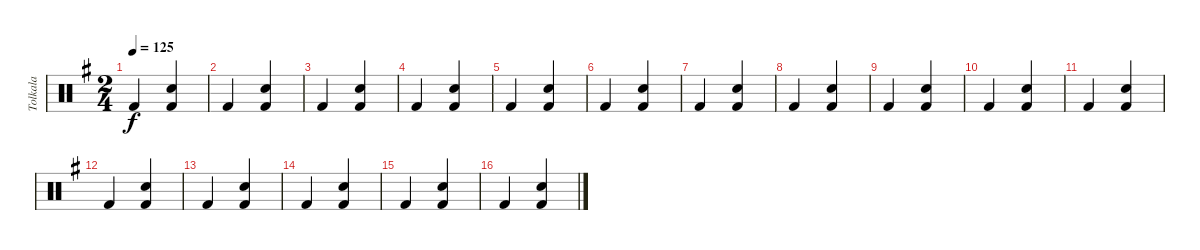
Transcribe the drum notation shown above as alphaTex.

\track ("Tolkala" "Tolkala") {instrument percussion}
\staff {score}
\articulation defaults
\ts (2 4)
\tempo 125
\clef neutral
\ks g "Kick (hit) 2".4{dy f}
("Kick (hit) 2" "Snare (hit) 2").4 |
"Kick (hit) 2".4 ("Kick (hit) 2" "Snare (hit) 2").4 |
"Kick (hit) 2".4 ("Kick (hit) 2" "Snare (hit) 2").4 |
"Kick (hit) 2".4 ("Kick (hit) 2" "Snare (hit) 2").4 |
"Kick (hit) 2".4 ("Kick (hit) 2" "Snare (hit) 2").4 |
"Kick (hit) 2".4 ("Kick (hit) 2" "Snare (hit) 2").4 |
"Kick (hit) 2".4 ("Kick (hit) 2" "Snare (hit) 2").4 |
"Kick (hit) 2".4 ("Kick (hit) 2" "Snare (hit) 2").4 |
"Kick (hit) 2".4 ("Kick (hit) 2" "Snare (hit) 2").4 |
"Kick (hit) 2".4 ("Kick (hit) 2" "Snare (hit) 2").4 |
"Kick (hit) 2".4 ("Kick (hit) 2" "Snare (hit) 2").4 |
"Kick (hit) 2".4 ("Kick (hit) 2" "Snare (hit) 2").4 |
"Kick (hit) 2".4 ("Kick (hit) 2" "Snare (hit) 2").4 |
"Kick (hit) 2".4 ("Kick (hit) 2" "Snare (hit) 2").4 |
"Kick (hit) 2".4 ("Kick (hit) 2" "Snare (hit) 2").4 |
"Kick (hit) 2".4 ("Kick (hit) 2" "Snare (hit) 2").4
